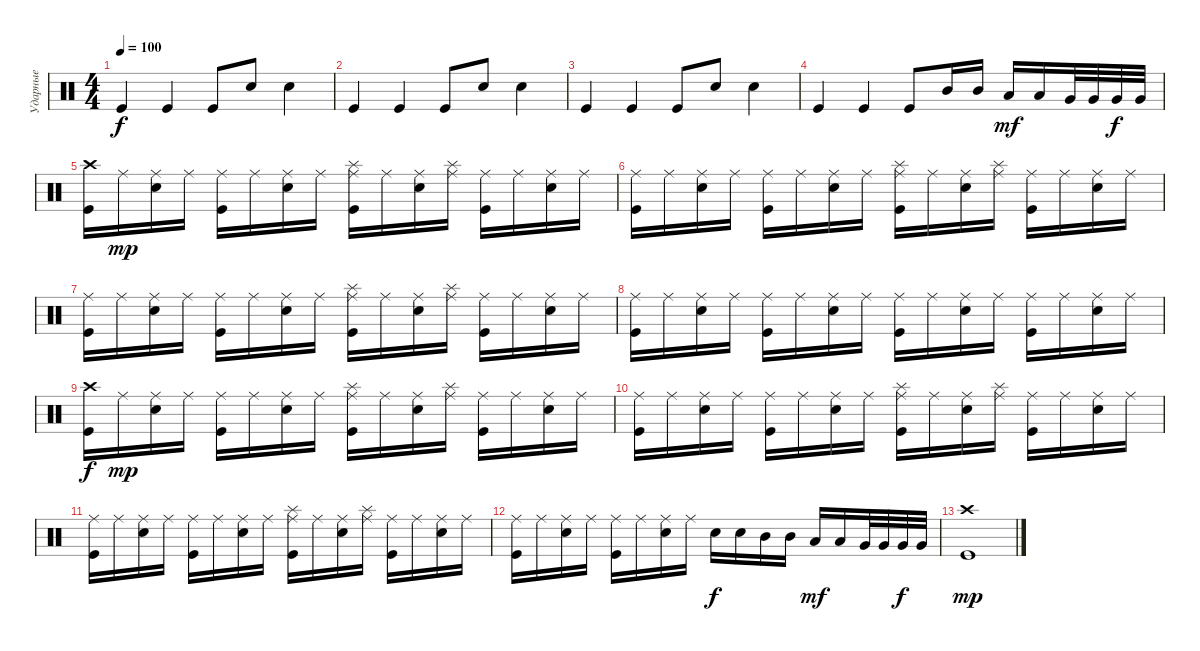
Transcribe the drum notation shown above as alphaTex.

\track ("Ударные" "Ударные") {instrument percussion}
\staff {score}
\articulation defaults
\ts (4 4)
\tempo 100
\clef neutral
\ks c "Kick (hit)".4{dy f} "Kick (hit)".4 "Kick (hit)".8 "Snare (hit) 2".8 "Snare (hit) 2".4
|
"Kick (hit)".4 "Kick (hit)".4 "Kick (hit)".8 "Snare (hit) 2".8 "Snare (hit) 2".4 |
"Kick (hit)".4 "Kick (hit)".4 "Kick (hit)".8 "Snare (hit) 2".8 "Snare (hit) 2".4 |
"Kick (hit)".4 "Kick (hit)".4 "Kick (hit)".8 "Mid Tom (hit)".16 "Mid Tom (hit)".16 "Low Tom (hit)".16{dy mf} "Low Tom (hit)".16 "Very Low Tom (hit)".32 "Very Low Tom (hit)".32 "Very Low Tom (hit)".32{dy f} "Very Low Tom (hit)".32 |
("Crash high (hit)" "Kick (hit)").16 "Ride (middle)".16{dy mp} ("Ride (middle)" "Snare (hit) 2").16 "Ride (middle)".16 ("Ride (middle)" "Kick (hit)").16 "Ride (middle)".16 ("Ride (middle)" "Snare (hit) 2").16 "Ride (middle)".16 ("Splash (hit)" "Ride (middle)" "Kick (hit)").16 "Ride (middle)".16 ("Ride (middle)" "Snare (hit) 2").16 ("Splash (hit)" "Ride (middle)").16 ("Ride (middle)" "Kick (hit)").16 "Ride (middle)".16 ("Ride (middle)" "Snare (hit) 2").16 "Ride (middle)".16 |
("Ride (middle)" "Kick (hit)").16 "Ride (middle)".16 ("Ride (middle)" "Snare (hit) 2").16 "Ride (middle)".16 ("Ride (middle)" "Kick (hit)").16 "Ride (middle)".16 ("Ride (middle)" "Snare (hit) 2").16 "Ride (middle)".16 ("Splash (hit)" "Ride (middle)" "Kick (hit)").16 "Ride (middle)".16 ("Ride (middle)" "Snare (hit) 2").16 ("Splash (hit)" "Ride (middle)").16 ("Ride (middle)" "Kick (hit)").16 "Ride (middle)".16 ("Ride (middle)" "Snare (hit) 2").16 "Ride (middle)".16 |
("Ride (middle)" "Kick (hit)").16 "Ride (middle)".16 ("Ride (middle)" "Snare (hit) 2").16 "Ride (middle)".16 ("Ride (middle)" "Kick (hit)").16 "Ride (middle)".16 ("Ride (middle)" "Snare (hit) 2").16 "Ride (middle)".16 ("Splash (hit)" "Ride (middle)" "Kick (hit)").16 "Ride (middle)".16 ("Ride (middle)" "Snare (hit) 2").16 ("Splash (hit)" "Ride (middle)").16 ("Ride (middle)" "Kick (hit)").16 "Ride (middle)".16 ("Ride (middle)" "Snare (hit) 2").16 "Ride (middle)".16 |
("Ride (middle)" "Kick (hit)").16 "Ride (middle)".16 ("Ride (middle)" "Snare (hit) 2").16 "Ride (middle)".16 ("Ride (middle)" "Kick (hit)").16 "Ride (middle)".16 ("Ride (middle)" "Snare (hit) 2").16 "Ride (middle)".16 ("Ride (middle)" "Kick (hit)").16 "Ride (middle)".16 ("Ride (middle)" "Snare (hit) 2").16 "Ride (middle)".16 ("Ride (middle)" "Kick (hit)").16 "Ride (middle)".16 ("Ride (middle)" "Snare (hit) 2").16 "Ride (middle)".16 |
("Crash high (hit)" "Kick (hit)").16{dy f} "Ride (middle)".16{dy mp} ("Ride (middle)" "Snare (hit) 2").16 "Ride (middle)".16 ("Ride (middle)" "Kick (hit)").16 "Ride (middle)".16 ("Ride (middle)" "Snare (hit) 2").16 "Ride (middle)".16 ("Splash (hit)" "Ride (middle)" "Kick (hit)").16 "Ride (middle)".16 ("Ride (middle)" "Snare (hit) 2").16 ("Splash (hit)" "Ride (middle)").16 ("Ride (middle)" "Kick (hit)").16 "Ride (middle)".16 ("Ride (middle)" "Snare (hit) 2").16 "Ride (middle)".16 |
("Ride (middle)" "Kick (hit)").16 "Ride (middle)".16 ("Ride (middle)" "Snare (hit) 2").16 "Ride (middle)".16 ("Ride (middle)" "Kick (hit)").16 "Ride (middle)".16 ("Ride (middle)" "Snare (hit) 2").16 "Ride (middle)".16 ("Splash (hit)" "Ride (middle)" "Kick (hit)").16 "Ride (middle)".16 ("Ride (middle)" "Snare (hit) 2").16 ("Splash (hit)" "Ride (middle)").16 ("Ride (middle)" "Kick (hit)").16 "Ride (middle)".16 ("Ride (middle)" "Snare (hit) 2").16 "Ride (middle)".16 |
("Ride (middle)" "Kick (hit)").16 "Ride (middle)".16 ("Ride (middle)" "Snare (hit) 2").16 "Ride (middle)".16 ("Ride (middle)" "Kick (hit)").16 "Ride (middle)".16 ("Ride (middle)" "Snare (hit) 2").16 "Ride (middle)".16 ("Splash (hit)" "Ride (middle)" "Kick (hit)").16 "Ride (middle)".16 ("Ride (middle)" "Snare (hit) 2").16 ("Splash (hit)" "Ride (middle)").16 ("Ride (middle)" "Kick (hit)").16 "Ride (middle)".16 ("Ride (middle)" "Snare (hit) 2").16 "Ride (middle)".16 |
("Ride (middle)" "Kick (hit)").16 "Ride (middle)".16 ("Ride (middle)" "Snare (hit) 2").16 "Ride (middle)".16 ("Ride (middle)" "Kick (hit)").16 "Ride (middle)".16 ("Ride (middle)" "Snare (hit) 2").16 "Ride (middle)".16 "Snare (hit) 2".16{dy f} "Snare (hit) 2".16 "Mid Tom (hit)".16 "Mid Tom (hit)".16 "Low Tom (hit)".16{dy mf} "Low Tom (hit)".16 "Very Low Tom (hit)".32 "Very Low Tom (hit)".32 "Very Low Tom (hit)".32{dy f} "Very Low Tom (hit)".32 |
("Crash high (hit)" "Kick (hit)").1{dy mp}
